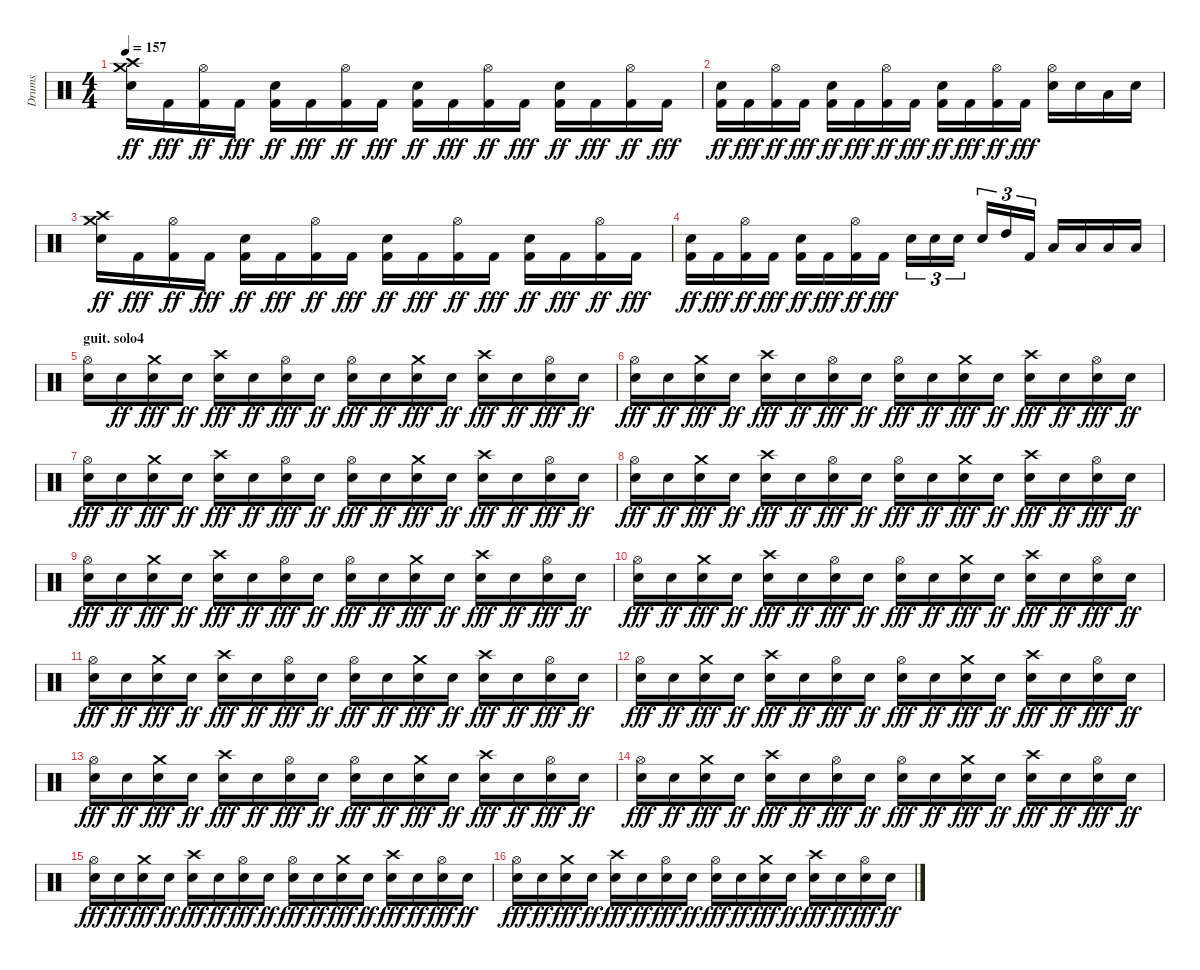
\track ("Drums" "Drums") {instrument percussion}
\staff {score}
\articulation defaults
\ts (4 4)
\tempo 157
\clef neutral
\ks c
("Crash high (hit)" "Crash medium (hit)" "Electric Snare (hit)").16{dy ff} "Kick (hit) 2".16{dy fff} ("Kick (hit) 2" "Hi-Hat (open)").16{dy ff} "Kick (hit) 2".16{dy fff} ("Kick (hit) 2" "Electric Snare (hit)").16{dy ff} "Kick (hit) 2".16{dy fff} ("Kick (hit) 2" "Hi-Hat (open)").16{dy ff} "Kick (hit) 2".16{dy fff} ("Kick (hit) 2" "Electric Snare (hit)").16{dy ff} "Kick (hit) 2".16{dy fff} ("Kick (hit) 2" "Hi-Hat (open)").16{dy ff} "Kick (hit) 2".16{dy fff} ("Kick (hit) 2" "Electric Snare (hit)").16{dy ff} "Kick (hit) 2".16{dy fff} ("Kick (hit) 2" "Hi-Hat (open)").16{dy ff} "Kick (hit) 2".16{dy fff} |
("Kick (hit) 2" "Electric Snare (hit)").16{dy ff} "Kick (hit) 2".16{dy fff} ("Kick (hit) 2" "Hi-Hat (open)").16{dy ff} "Kick (hit) 2".16{dy fff} ("Kick (hit) 2" "Electric Snare (hit)").16{dy ff} "Kick (hit) 2".16{dy fff} ("Kick (hit) 2" "Hi-Hat (open)").16{dy ff} "Kick (hit) 2".16{dy fff} ("Kick (hit) 2" "Electric Snare (hit)").16{dy ff} "Kick (hit) 2".16{dy fff} ("Kick (hit) 2" "Hi-Hat (open)").16{dy ff} "Kick (hit) 2".16{dy fff} ("Electric Snare (hit)" "Hi-Hat (open)").16 "Electric Snare (hit)".16 "Low Tom (hit)".16 "Snare (hit) 2".16 |
("Crash high (hit)" "Crash medium (hit)" "Electric Snare (hit)").16{dy ff} "Kick (hit) 2".16{dy fff} ("Kick (hit) 2" "Hi-Hat (open)").16{dy ff} "Kick (hit) 2".16{dy fff} ("Kick (hit) 2" "Electric Snare (hit)").16{dy ff} "Kick (hit) 2".16{dy fff} ("Kick (hit) 2" "Hi-Hat (open)").16{dy ff} "Kick (hit) 2".16{dy fff} ("Kick (hit) 2" "Electric Snare (hit)").16{dy ff} "Kick (hit) 2".16{dy fff} ("Kick (hit) 2" "Hi-Hat (open)").16{dy ff} "Kick (hit) 2".16{dy fff} ("Kick (hit) 2" "Electric Snare (hit)").16{dy ff} "Kick (hit) 2".16{dy fff} ("Kick (hit) 2" "Hi-Hat (open)").16{dy ff} "Kick (hit) 2".16{dy fff} |
("Kick (hit) 2" "Electric Snare (hit)").16{dy ff} "Kick (hit) 2".16{dy fff} ("Kick (hit) 2" "Hi-Hat (open)").16{dy ff} "Kick (hit) 2".16{dy fff} ("Kick (hit) 2" "Electric Snare (hit)").16{dy ff} "Kick (hit) 2".16{dy fff} ("Kick (hit) 2" "Hi-Hat (open)").16{dy ff} "Kick (hit) 2".16{dy fff} "Electric Snare (hit)".16{tu (3 2)} "Electric Snare (hit)".16{tu (3 2)} "Electric Snare (hit)".16{tu (3 2)} "Electric Snare (hit)".16{tu (3 2)} "High Tom (hit)".16{tu (3 2)} "Kick (hit) 2".16{tu (3 2)} "Low Tom (hit)".16 "Low Tom (hit)".16 "Low Tom (hit)".16 "Low Tom (hit)".16 |
\section ("" "guit. solo4")
("Electric Snare (hit)" "Hi-Hat (open)").16 "Electric Snare (hit)".16{dy ff} ("Electric Snare (hit)" "Crash medium (hit)").16{dy fff} "Electric Snare (hit)".16{dy ff} ("Electric Snare (hit)" "Crash high (hit)").16{dy fff} "Electric Snare (hit)".16{dy ff} ("Electric Snare (hit)" "Hi-Hat (open)").16{dy fff} "Electric Snare (hit)".16{dy ff} ("Electric Snare (hit)" "Hi-Hat (open)").16{dy fff} "Electric Snare (hit)".16{dy ff} ("Electric Snare (hit)" "Crash medium (hit)").16{dy fff} "Electric Snare (hit)".16{dy ff} ("Electric Snare (hit)" "Crash high (hit)").16{dy fff} "Electric Snare (hit)".16{dy ff} ("Electric Snare (hit)" "Hi-Hat (open)").16{dy fff} "Electric Snare (hit)".16{dy ff} |
("Electric Snare (hit)" "Hi-Hat (open)").16{dy fff} "Electric Snare (hit)".16{dy ff} ("Electric Snare (hit)" "Crash medium (hit)").16{dy fff} "Electric Snare (hit)".16{dy ff} ("Electric Snare (hit)" "Crash high (hit)").16{dy fff} "Electric Snare (hit)".16{dy ff} ("Electric Snare (hit)" "Hi-Hat (open)").16{dy fff} "Electric Snare (hit)".16{dy ff} ("Electric Snare (hit)" "Hi-Hat (open)").16{dy fff} "Electric Snare (hit)".16{dy ff} ("Electric Snare (hit)" "Crash medium (hit)").16{dy fff} "Electric Snare (hit)".16{dy ff} ("Electric Snare (hit)" "Crash high (hit)").16{dy fff} "Electric Snare (hit)".16{dy ff} ("Electric Snare (hit)" "Hi-Hat (open)").16{dy fff} "Electric Snare (hit)".16{dy ff} |
("Electric Snare (hit)" "Hi-Hat (open)").16{dy fff} "Electric Snare (hit)".16{dy ff} ("Electric Snare (hit)" "Crash medium (hit)").16{dy fff} "Electric Snare (hit)".16{dy ff} ("Electric Snare (hit)" "Crash high (hit)").16{dy fff} "Electric Snare (hit)".16{dy ff} ("Electric Snare (hit)" "Hi-Hat (open)").16{dy fff} "Electric Snare (hit)".16{dy ff} ("Electric Snare (hit)" "Hi-Hat (open)").16{dy fff} "Electric Snare (hit)".16{dy ff} ("Electric Snare (hit)" "Crash medium (hit)").16{dy fff} "Electric Snare (hit)".16{dy ff} ("Electric Snare (hit)" "Crash high (hit)").16{dy fff} "Electric Snare (hit)".16{dy ff} ("Electric Snare (hit)" "Hi-Hat (open)").16{dy fff} "Electric Snare (hit)".16{dy ff} |
("Electric Snare (hit)" "Hi-Hat (open)").16{dy fff} "Electric Snare (hit)".16{dy ff} ("Electric Snare (hit)" "Crash medium (hit)").16{dy fff} "Electric Snare (hit)".16{dy ff} ("Electric Snare (hit)" "Crash high (hit)").16{dy fff} "Electric Snare (hit)".16{dy ff} ("Electric Snare (hit)" "Hi-Hat (open)").16{dy fff} "Electric Snare (hit)".16{dy ff} ("Electric Snare (hit)" "Hi-Hat (open)").16{dy fff} "Electric Snare (hit)".16{dy ff} ("Electric Snare (hit)" "Crash medium (hit)").16{dy fff} "Electric Snare (hit)".16{dy ff} ("Electric Snare (hit)" "Crash high (hit)").16{dy fff} "Electric Snare (hit)".16{dy ff} ("Electric Snare (hit)" "Hi-Hat (open)").16{dy fff} "Electric Snare (hit)".16{dy ff} |
("Electric Snare (hit)" "Hi-Hat (open)").16{dy fff} "Electric Snare (hit)".16{dy ff} ("Electric Snare (hit)" "Crash medium (hit)").16{dy fff} "Electric Snare (hit)".16{dy ff} ("Electric Snare (hit)" "Crash high (hit)").16{dy fff} "Electric Snare (hit)".16{dy ff} ("Electric Snare (hit)" "Hi-Hat (open)").16{dy fff} "Electric Snare (hit)".16{dy ff} ("Electric Snare (hit)" "Hi-Hat (open)").16{dy fff} "Electric Snare (hit)".16{dy ff} ("Electric Snare (hit)" "Crash medium (hit)").16{dy fff} "Electric Snare (hit)".16{dy ff} ("Electric Snare (hit)" "Crash high (hit)").16{dy fff} "Electric Snare (hit)".16{dy ff} ("Electric Snare (hit)" "Hi-Hat (open)").16{dy fff} "Electric Snare (hit)".16{dy ff} |
("Electric Snare (hit)" "Hi-Hat (open)").16{dy fff} "Electric Snare (hit)".16{dy ff} ("Electric Snare (hit)" "Crash medium (hit)").16{dy fff} "Electric Snare (hit)".16{dy ff} ("Electric Snare (hit)" "Crash high (hit)").16{dy fff} "Electric Snare (hit)".16{dy ff} ("Electric Snare (hit)" "Hi-Hat (open)").16{dy fff} "Electric Snare (hit)".16{dy ff} ("Electric Snare (hit)" "Hi-Hat (open)").16{dy fff} "Electric Snare (hit)".16{dy ff} ("Electric Snare (hit)" "Crash medium (hit)").16{dy fff} "Electric Snare (hit)".16{dy ff} ("Electric Snare (hit)" "Crash high (hit)").16{dy fff} "Electric Snare (hit)".16{dy ff} ("Electric Snare (hit)" "Hi-Hat (open)").16{dy fff} "Electric Snare (hit)".16{dy ff} |
("Electric Snare (hit)" "Hi-Hat (open)").16{dy fff} "Electric Snare (hit)".16{dy ff} ("Electric Snare (hit)" "Crash medium (hit)").16{dy fff} "Electric Snare (hit)".16{dy ff} ("Electric Snare (hit)" "Crash high (hit)").16{dy fff} "Electric Snare (hit)".16{dy ff} ("Electric Snare (hit)" "Hi-Hat (open)").16{dy fff} "Electric Snare (hit)".16{dy ff} ("Electric Snare (hit)" "Hi-Hat (open)").16{dy fff} "Electric Snare (hit)".16{dy ff} ("Electric Snare (hit)" "Crash medium (hit)").16{dy fff} "Electric Snare (hit)".16{dy ff} ("Electric Snare (hit)" "Crash high (hit)").16{dy fff} "Electric Snare (hit)".16{dy ff} ("Electric Snare (hit)" "Hi-Hat (open)").16{dy fff} "Electric Snare (hit)".16{dy ff} |
("Electric Snare (hit)" "Hi-Hat (open)").16{dy fff} "Electric Snare (hit)".16{dy ff} ("Electric Snare (hit)" "Crash medium (hit)").16{dy fff} "Electric Snare (hit)".16{dy ff} ("Electric Snare (hit)" "Crash high (hit)").16{dy fff} "Electric Snare (hit)".16{dy ff} ("Electric Snare (hit)" "Hi-Hat (open)").16{dy fff} "Electric Snare (hit)".16{dy ff} ("Electric Snare (hit)" "Hi-Hat (open)").16{dy fff} "Electric Snare (hit)".16{dy ff} ("Electric Snare (hit)" "Crash medium (hit)").16{dy fff} "Electric Snare (hit)".16{dy ff} ("Electric Snare (hit)" "Crash high (hit)").16{dy fff} "Electric Snare (hit)".16{dy ff} ("Electric Snare (hit)" "Hi-Hat (open)").16{dy fff} "Electric Snare (hit)".16{dy ff} |
("Electric Snare (hit)" "Hi-Hat (open)").16{dy fff} "Electric Snare (hit)".16{dy ff} ("Electric Snare (hit)" "Crash medium (hit)").16{dy fff} "Electric Snare (hit)".16{dy ff} ("Electric Snare (hit)" "Crash high (hit)").16{dy fff} "Electric Snare (hit)".16{dy ff} ("Electric Snare (hit)" "Hi-Hat (open)").16{dy fff} "Electric Snare (hit)".16{dy ff} ("Electric Snare (hit)" "Hi-Hat (open)").16{dy fff} "Electric Snare (hit)".16{dy ff} ("Electric Snare (hit)" "Crash medium (hit)").16{dy fff} "Electric Snare (hit)".16{dy ff} ("Electric Snare (hit)" "Crash high (hit)").16{dy fff} "Electric Snare (hit)".16{dy ff} ("Electric Snare (hit)" "Hi-Hat (open)").16{dy fff} "Electric Snare (hit)".16{dy ff} |
("Electric Snare (hit)" "Hi-Hat (open)").16{dy fff} "Electric Snare (hit)".16{dy ff} ("Electric Snare (hit)" "Crash medium (hit)").16{dy fff} "Electric Snare (hit)".16{dy ff} ("Electric Snare (hit)" "Crash high (hit)").16{dy fff} "Electric Snare (hit)".16{dy ff} ("Electric Snare (hit)" "Hi-Hat (open)").16{dy fff} "Electric Snare (hit)".16{dy ff} ("Electric Snare (hit)" "Hi-Hat (open)").16{dy fff} "Electric Snare (hit)".16{dy ff} ("Electric Snare (hit)" "Crash medium (hit)").16{dy fff} "Electric Snare (hit)".16{dy ff} ("Electric Snare (hit)" "Crash high (hit)").16{dy fff} "Electric Snare (hit)".16{dy ff} ("Electric Snare (hit)" "Hi-Hat (open)").16{dy fff} "Electric Snare (hit)".16{dy ff} |
("Electric Snare (hit)" "Hi-Hat (open)").16{dy fff} "Electric Snare (hit)".16{dy ff} ("Electric Snare (hit)" "Crash medium (hit)").16{dy fff} "Electric Snare (hit)".16{dy ff} ("Electric Snare (hit)" "Crash high (hit)").16{dy fff} "Electric Snare (hit)".16{dy ff} ("Electric Snare (hit)" "Hi-Hat (open)").16{dy fff} "Electric Snare (hit)".16{dy ff} ("Electric Snare (hit)" "Hi-Hat (open)").16{dy fff} "Electric Snare (hit)".16{dy ff} ("Electric Snare (hit)" "Crash medium (hit)").16{dy fff} "Electric Snare (hit)".16{dy ff} ("Electric Snare (hit)" "Crash high (hit)").16{dy fff} "Electric Snare (hit)".16{dy ff} ("Electric Snare (hit)" "Hi-Hat (open)").16{dy fff} "Electric Snare (hit)".16{dy ff} |
("Electric Snare (hit)" "Hi-Hat (open)").16{dy fff} "Electric Snare (hit)".16{dy ff} ("Electric Snare (hit)" "Crash medium (hit)").16{dy fff} "Electric Snare (hit)".16{dy ff} ("Electric Snare (hit)" "Crash high (hit)").16{dy fff} "Electric Snare (hit)".16{dy ff} ("Electric Snare (hit)" "Hi-Hat (open)").16{dy fff} "Electric Snare (hit)".16{dy ff} ("Electric Snare (hit)" "Hi-Hat (open)").16{dy fff} "Electric Snare (hit)".16{dy ff} ("Electric Snare (hit)" "Crash medium (hit)").16{dy fff} "Electric Snare (hit)".16{dy ff} ("Electric Snare (hit)" "Crash high (hit)").16{dy fff} "Electric Snare (hit)".16{dy ff} ("Electric Snare (hit)" "Hi-Hat (open)").16{dy fff} "Electric Snare (hit)".16{dy ff}
